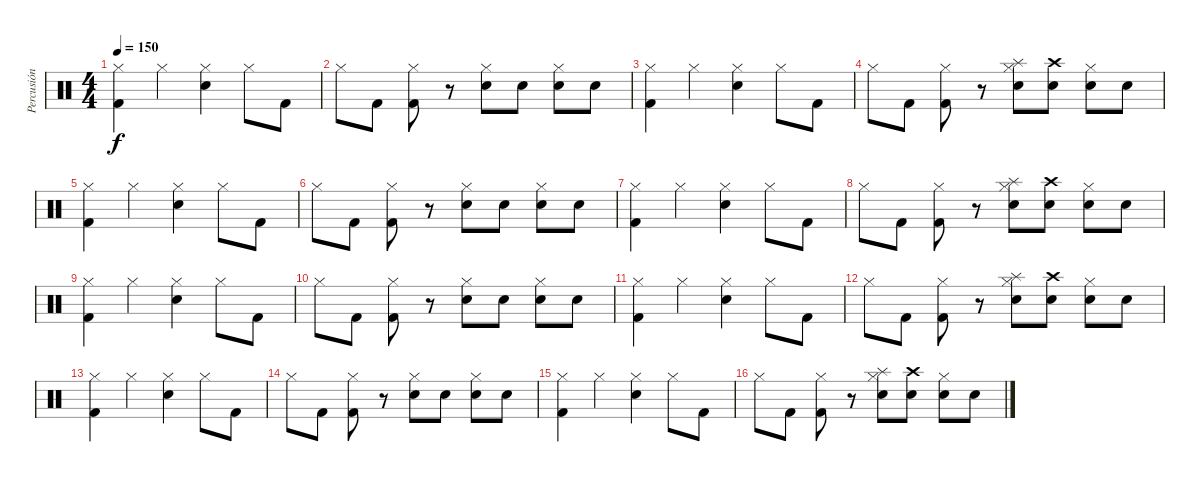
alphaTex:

\track ("Percusión" "Percusión") {instrument percussion}
\staff {score}
\articulation defaults
\ts (4 4)
\tempo 150
\clef neutral
\ks c
("Hi-Hat (closed)" "Kick (hit) 2").4{dy f} "Hi-Hat (closed)".4 ("Hi-Hat (closed)" "Snare (hit) 2").4 "Hi-Hat (closed)".8 "Kick (hit) 2".8 |
"Hi-Hat (closed)".8 "Kick (hit) 2".8 ("Hi-Hat (closed)" "Kick (hit) 2").8 r.8 ("Hi-Hat (closed)" "Snare (hit) 2").8 "Snare (hit) 2".8 ("Hi-Hat (closed)" "Snare (hit) 2").8 "Snare (hit) 2".8 |
("Hi-Hat (closed)" "Kick (hit) 2").4 "Hi-Hat (closed)".4 ("Hi-Hat (closed)" "Snare (hit) 2").4 "Hi-Hat (closed)".8 "Kick (hit) 2".8 |
"Hi-Hat (closed)".8 "Kick (hit) 2".8 ("Hi-Hat (closed)" "Kick (hit) 2").8 r.8 ("Splash (hit)" "Hi-Hat (closed)" "Snare (hit) 2").8 ("Crash high (hit)" "Snare (hit) 2").8 ("Hi-Hat (closed)" "Snare (hit) 2").8 "Snare (hit) 2".8 |
("Hi-Hat (closed)" "Kick (hit) 2").4 "Hi-Hat (closed)".4 ("Hi-Hat (closed)" "Snare (hit) 2").4 "Hi-Hat (closed)".8 "Kick (hit) 2".8 |
"Hi-Hat (closed)".8 "Kick (hit) 2".8 ("Hi-Hat (closed)" "Kick (hit) 2").8 r.8 ("Hi-Hat (closed)" "Snare (hit) 2").8 "Snare (hit) 2".8 ("Hi-Hat (closed)" "Snare (hit) 2").8 "Snare (hit) 2".8 |
("Hi-Hat (closed)" "Kick (hit) 2").4 "Hi-Hat (closed)".4 ("Hi-Hat (closed)" "Snare (hit) 2").4 "Hi-Hat (closed)".8 "Kick (hit) 2".8 |
"Hi-Hat (closed)".8 "Kick (hit) 2".8 ("Hi-Hat (closed)" "Kick (hit) 2").8 r.8 ("Splash (hit)" "Hi-Hat (closed)" "Snare (hit) 2").8 ("Crash high (hit)" "Snare (hit) 2").8 ("Hi-Hat (closed)" "Snare (hit) 2").8 "Snare (hit) 2".8 |
("Hi-Hat (closed)" "Kick (hit) 2").4 "Hi-Hat (closed)".4 ("Hi-Hat (closed)" "Snare (hit) 2").4 "Hi-Hat (closed)".8 "Kick (hit) 2".8 |
"Hi-Hat (closed)".8 "Kick (hit) 2".8 ("Hi-Hat (closed)" "Kick (hit) 2").8 r.8 ("Hi-Hat (closed)" "Snare (hit) 2").8 "Snare (hit) 2".8 ("Hi-Hat (closed)" "Snare (hit) 2").8 "Snare (hit) 2".8 |
("Hi-Hat (closed)" "Kick (hit) 2").4 "Hi-Hat (closed)".4 ("Hi-Hat (closed)" "Snare (hit) 2").4 "Hi-Hat (closed)".8 "Kick (hit) 2".8 |
"Hi-Hat (closed)".8 "Kick (hit) 2".8 ("Hi-Hat (closed)" "Kick (hit) 2").8 r.8 ("Splash (hit)" "Hi-Hat (closed)" "Snare (hit) 2").8 ("Crash high (hit)" "Snare (hit) 2").8 ("Hi-Hat (closed)" "Snare (hit) 2").8 "Snare (hit) 2".8 |
("Hi-Hat (closed)" "Kick (hit) 2").4 "Hi-Hat (closed)".4 ("Hi-Hat (closed)" "Snare (hit) 2").4 "Hi-Hat (closed)".8 "Kick (hit) 2".8 |
"Hi-Hat (closed)".8 "Kick (hit) 2".8 ("Hi-Hat (closed)" "Kick (hit) 2").8 r.8 ("Hi-Hat (closed)" "Snare (hit) 2").8 "Snare (hit) 2".8 ("Hi-Hat (closed)" "Snare (hit) 2").8 "Snare (hit) 2".8 |
("Hi-Hat (closed)" "Kick (hit) 2").4 "Hi-Hat (closed)".4 ("Hi-Hat (closed)" "Snare (hit) 2").4 "Hi-Hat (closed)".8 "Kick (hit) 2".8 |
"Hi-Hat (closed)".8 "Kick (hit) 2".8 ("Hi-Hat (closed)" "Kick (hit) 2").8 r.8 ("Splash (hit)" "Hi-Hat (closed)" "Snare (hit) 2").8 ("Crash high (hit)" "Snare (hit) 2").8 ("Hi-Hat (closed)" "Snare (hit) 2").8 "Snare (hit) 2".8
